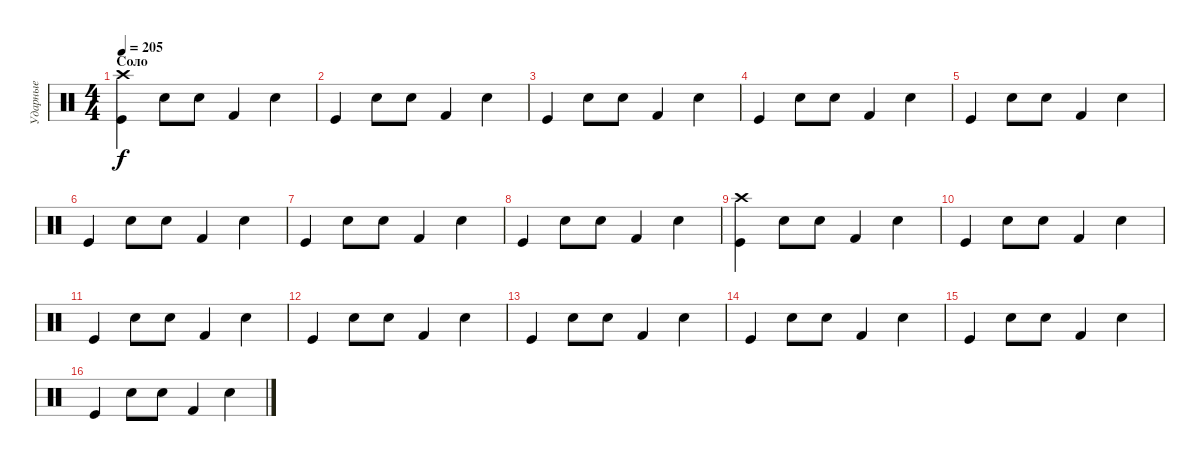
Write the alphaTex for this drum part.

\track ("Ударные" "Ударные") {instrument percussion}
\staff {score}
\articulation defaults
\ts (4 4)
\section ("" "Соло")
\tempo 205
\clef neutral
\ks c
("Kick (hit)" "Crash high (hit)").4{dy f} "Snare (hit) 2".8 "Snare (hit) 2".8 "Kick (hit) 2".4 "Snare (hit) 2".4 |
"Kick (hit)".4 "Snare (hit) 2".8 "Snare (hit) 2".8 "Kick (hit) 2".4 "Snare (hit) 2".4 |
"Kick (hit)".4 "Snare (hit) 2".8 "Snare (hit) 2".8 "Kick (hit) 2".4 "Snare (hit) 2".4 |
"Kick (hit)".4 "Snare (hit) 2".8 "Snare (hit) 2".8 "Kick (hit) 2".4 "Snare (hit) 2".4 |
"Kick (hit)".4 "Snare (hit) 2".8 "Snare (hit) 2".8 "Kick (hit) 2".4 "Snare (hit) 2".4 |
"Kick (hit)".4 "Snare (hit) 2".8 "Snare (hit) 2".8 "Kick (hit) 2".4 "Snare (hit) 2".4 |
"Kick (hit)".4 "Snare (hit) 2".8 "Snare (hit) 2".8 "Kick (hit) 2".4 "Snare (hit) 2".4 |
"Kick (hit)".4 "Snare (hit) 2".8 "Snare (hit) 2".8 "Kick (hit) 2".4 "Snare (hit) 2".4 |
("Kick (hit)" "Crash high (hit)").4 "Snare (hit) 2".8 "Snare (hit) 2".8 "Kick (hit) 2".4 "Snare (hit) 2".4 |
"Kick (hit)".4 "Snare (hit) 2".8 "Snare (hit) 2".8 "Kick (hit) 2".4 "Snare (hit) 2".4 |
"Kick (hit)".4 "Snare (hit) 2".8 "Snare (hit) 2".8 "Kick (hit) 2".4 "Snare (hit) 2".4 |
"Kick (hit)".4 "Snare (hit) 2".8 "Snare (hit) 2".8 "Kick (hit) 2".4 "Snare (hit) 2".4 |
"Kick (hit)".4 "Snare (hit) 2".8 "Snare (hit) 2".8 "Kick (hit) 2".4 "Snare (hit) 2".4 |
"Kick (hit)".4 "Snare (hit) 2".8 "Snare (hit) 2".8 "Kick (hit) 2".4 "Snare (hit) 2".4 |
"Kick (hit)".4 "Snare (hit) 2".8 "Snare (hit) 2".8 "Kick (hit) 2".4 "Snare (hit) 2".4 |
"Kick (hit)".4 "Snare (hit) 2".8 "Snare (hit) 2".8 "Kick (hit) 2".4 "Snare (hit) 2".4
